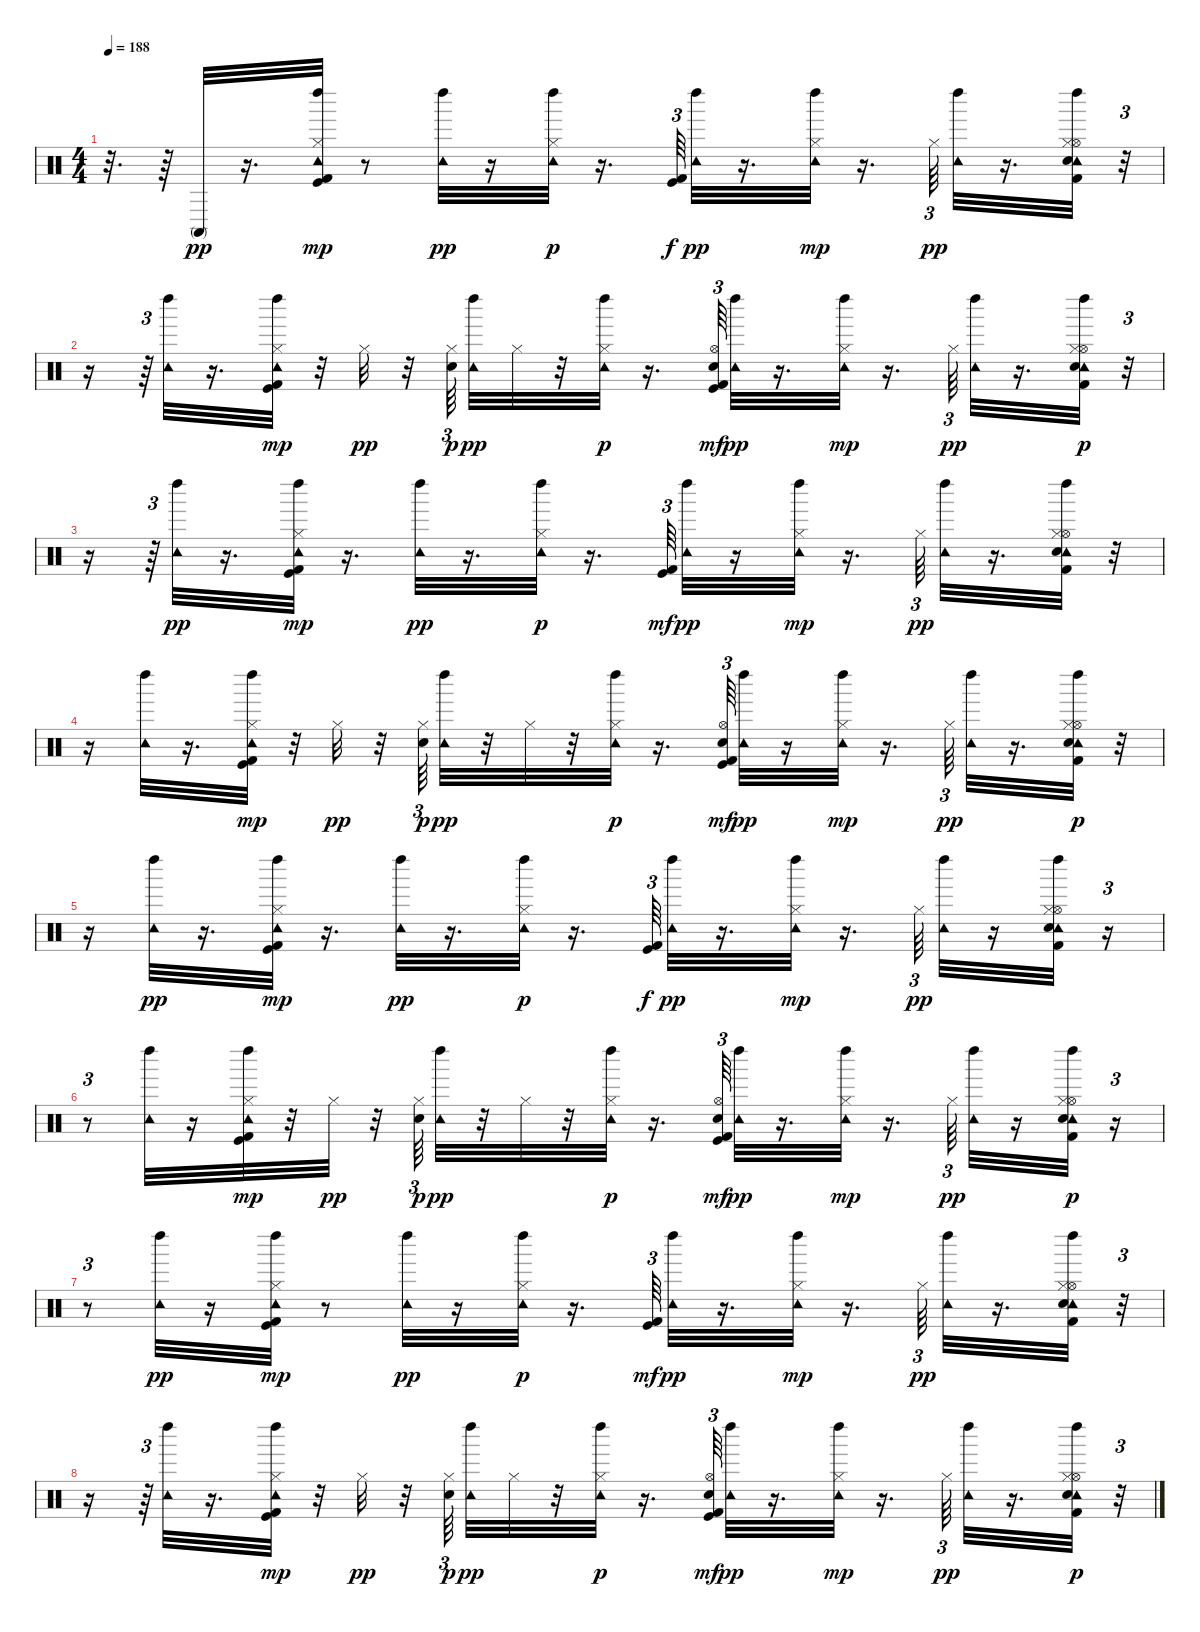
\track "" {instrument percussion}
\staff {score}
\articulation defaults
\ts (4 4)
\tempo 188
\clef neutral
\ks c
r.32{d dy mp} r.64 "Conga high (mute)".32{dy pp} r.16{d} ("Kick (hit) 2" "Hi-Hat (closed)" "Tambourine (hit)" "Left Maraca (hit)" "Kick (hit)").32{dy mp} r.8 ("Tambourine (hit)" "Left Maraca (hit)").32{dy pp} r.16 ("Hi-Hat (closed)" "Tambourine (hit)" "Left Maraca (hit)").32{dy p} r.16{d} ("Kick (hit) 2" "Kick (hit)").64{tu (3 2) dy f} ("Tambourine (hit)" "Left Maraca (hit)").32{dy pp} r.16{d} ("Hi-Hat (closed)" "Tambourine (hit)" "Left Maraca (hit)").32{dy mp} r.16{d} "Hi-Hat (closed)".64{tu (3 2) dy pp} ("Tambourine (hit)" "Left Maraca (hit)").32 r.16{d} ("Kick (hit) 2" "Hi-Hat (open)" "Tambourine (hit)" "Left Maraca (hit)" "Electric Snare (hit)" "Hi-Hat (closed)").32 r.32{tu (3 2)} |
r.16 r.64{tu (3 2)} ("Tambourine (hit)" "Left Maraca (hit)").32 r.16{d} ("Kick (hit) 2" "Hi-Hat (closed)" "Tambourine (hit)" "Left Maraca (hit)" "Kick (hit)").32{dy mp} r.32 "Hi-Hat (closed)".32{dy pp} r.32 ("Electric Snare (hit)" "Hi-Hat (closed)").64{tu (3 2) dy p beam splitsecondary} ("Tambourine (hit)" "Left Maraca (hit)").32{dy pp} "Hi-Hat (closed)".32 r.32 ("Hi-Hat (closed)" "Tambourine (hit)" "Left Maraca (hit)").32{dy p} r.16{d} ("Kick (hit) 2" "Hi-Hat (open)" "Electric Snare (hit)" "Kick (hit)").64{tu (3 2) dy mf} ("Tambourine (hit)" "Left Maraca (hit)").32{dy pp} r.16{d} ("Hi-Hat (closed)" "Tambourine (hit)" "Left Maraca (hit)").32{dy mp} r.16{d} "Hi-Hat (closed)".64{tu (3 2) dy pp} ("Tambourine (hit)" "Left Maraca (hit)").32 r.16{d} ("Kick (hit) 2" "Hi-Hat (open)" "Tambourine (hit)" "Left Maraca (hit)" "Electric Snare (hit)" "Hi-Hat (closed)").32{dy p} r.32{tu (3 2)} |
r.16 r.64{tu (3 2)} ("Tambourine (hit)" "Left Maraca (hit)").32{dy pp} r.16{d} ("Kick (hit) 2" "Hi-Hat (closed)" "Tambourine (hit)" "Left Maraca (hit)" "Kick (hit)").32{dy mp} r.16{d} ("Tambourine (hit)" "Left Maraca (hit)").32{dy pp} r.16{d} ("Hi-Hat (closed)" "Tambourine (hit)" "Left Maraca (hit)").32{dy p} r.16{d} ("Kick (hit) 2" "Kick (hit)").64{tu (3 2) dy mf} ("Tambourine (hit)" "Left Maraca (hit)").32{dy pp} r.16 ("Hi-Hat (closed)" "Tambourine (hit)" "Left Maraca (hit)").32{dy mp} r.16{d} "Hi-Hat (closed)".64{tu (3 2) dy pp} ("Tambourine (hit)" "Left Maraca (hit)").32 r.16{d} ("Kick (hit) 2" "Hi-Hat (open)" "Tambourine (hit)" "Left Maraca (hit)" "Electric Snare (hit)" "Hi-Hat (closed)").32 r.32 |
r.16 ("Tambourine (hit)" "Left Maraca (hit)").32 r.16{d} ("Kick (hit) 2" "Hi-Hat (closed)" "Tambourine (hit)" "Left Maraca (hit)" "Kick (hit)").32{dy mp} r.32 "Hi-Hat (closed)".32{dy pp} r.32 ("Electric Snare (hit)" "Hi-Hat (closed)").64{tu (3 2) dy p} ("Tambourine (hit)" "Left Maraca (hit)").32{dy pp} r.32 "Hi-Hat (closed)".32 r.32 ("Hi-Hat (closed)" "Tambourine (hit)" "Left Maraca (hit)").32{dy p} r.16{d} ("Kick (hit) 2" "Hi-Hat (open)" "Electric Snare (hit)" "Kick (hit)").64{tu (3 2) dy mf} ("Tambourine (hit)" "Left Maraca (hit)").32{dy pp} r.16 ("Hi-Hat (closed)" "Tambourine (hit)" "Left Maraca (hit)").32{dy mp} r.16{d} "Hi-Hat (closed)".64{tu (3 2) dy pp} ("Tambourine (hit)" "Left Maraca (hit)").32 r.16{d} ("Kick (hit) 2" "Hi-Hat (open)" "Tambourine (hit)" "Left Maraca (hit)" "Electric Snare (hit)" "Hi-Hat (closed)").32{dy p} r.32 |
r.16 ("Tambourine (hit)" "Left Maraca (hit)").32{dy pp} r.16{d} ("Kick (hit) 2" "Hi-Hat (closed)" "Tambourine (hit)" "Left Maraca (hit)" "Kick (hit)").32{dy mp} r.16{d} ("Tambourine (hit)" "Left Maraca (hit)").32{dy pp} r.16{d} ("Hi-Hat (closed)" "Tambourine (hit)" "Left Maraca (hit)").32{dy p} r.16{d} ("Kick (hit) 2" "Kick (hit)").64{tu (3 2) dy f} ("Tambourine (hit)" "Left Maraca (hit)").32{dy pp} r.16{d} ("Hi-Hat (closed)" "Tambourine (hit)" "Left Maraca (hit)").32{dy mp} r.16{d} "Hi-Hat (closed)".64{tu (3 2) dy pp} ("Tambourine (hit)" "Left Maraca (hit)").32 r.16 ("Kick (hit) 2" "Hi-Hat (open)" "Tambourine (hit)" "Left Maraca (hit)" "Electric Snare (hit)" "Hi-Hat (closed)").32 r.16{tu (3 2)} |
r.8{tu (3 2)} ("Tambourine (hit)" "Left Maraca (hit)").32 r.16 ("Kick (hit) 2" "Hi-Hat (closed)" "Tambourine (hit)" "Left Maraca (hit)" "Kick (hit)").32{dy mp} r.32 "Hi-Hat (closed)".32{dy pp} r.32 ("Electric Snare (hit)" "Hi-Hat (closed)").64{tu (3 2) dy p} ("Tambourine (hit)" "Left Maraca (hit)").32{dy pp} r.32 "Hi-Hat (closed)".32 r.32 ("Hi-Hat (closed)" "Tambourine (hit)" "Left Maraca (hit)").32{dy p} r.16{d} ("Kick (hit) 2" "Hi-Hat (open)" "Electric Snare (hit)" "Kick (hit)").64{tu (3 2) dy mf} ("Tambourine (hit)" "Left Maraca (hit)").32{dy pp} r.16{d} ("Hi-Hat (closed)" "Tambourine (hit)" "Left Maraca (hit)").32{dy mp} r.16{d} "Hi-Hat (closed)".64{tu (3 2) dy pp} ("Tambourine (hit)" "Left Maraca (hit)").32 r.16 ("Kick (hit) 2" "Hi-Hat (open)" "Tambourine (hit)" "Left Maraca (hit)" "Electric Snare (hit)" "Hi-Hat (closed)").32{dy p} r.16{tu (3 2)} |
r.8{tu (3 2)} ("Tambourine (hit)" "Left Maraca (hit)").32{dy pp} r.16 ("Kick (hit) 2" "Hi-Hat (closed)" "Tambourine (hit)" "Left Maraca (hit)" "Kick (hit)").32{dy mp} r.8 ("Tambourine (hit)" "Left Maraca (hit)").32{dy pp} r.16 ("Hi-Hat (closed)" "Tambourine (hit)" "Left Maraca (hit)").32{dy p} r.16{d} ("Kick (hit) 2" "Kick (hit)").64{tu (3 2) dy mf} ("Tambourine (hit)" "Left Maraca (hit)").32{dy pp} r.16{d} ("Hi-Hat (closed)" "Tambourine (hit)" "Left Maraca (hit)").32{dy mp} r.16{d} "Hi-Hat (closed)".64{tu (3 2) dy pp} ("Tambourine (hit)" "Left Maraca (hit)").32 r.16{d} ("Kick (hit) 2" "Hi-Hat (open)" "Tambourine (hit)" "Left Maraca (hit)" "Electric Snare (hit)" "Hi-Hat (closed)").32 r.32{tu (3 2)} |
r.16 r.64{tu (3 2)} ("Tambourine (hit)" "Left Maraca (hit)").32 r.16{d} ("Kick (hit) 2" "Hi-Hat (closed)" "Tambourine (hit)" "Left Maraca (hit)" "Kick (hit)").32{dy mp} r.32 "Hi-Hat (closed)".32{dy pp} r.32 ("Electric Snare (hit)" "Hi-Hat (closed)").64{tu (3 2) dy p beam splitsecondary} ("Tambourine (hit)" "Left Maraca (hit)").32{dy pp} "Hi-Hat (closed)".32 r.32 ("Hi-Hat (closed)" "Tambourine (hit)" "Left Maraca (hit)").32{dy p} r.16{d} ("Kick (hit) 2" "Hi-Hat (open)" "Electric Snare (hit)" "Kick (hit)").64{tu (3 2) dy mf} ("Tambourine (hit)" "Left Maraca (hit)").32{dy pp} r.16{d} ("Hi-Hat (closed)" "Tambourine (hit)" "Left Maraca (hit)").32{dy mp} r.16{d} "Hi-Hat (closed)".64{tu (3 2) dy pp} ("Tambourine (hit)" "Left Maraca (hit)").32 r.16{d} ("Kick (hit) 2" "Hi-Hat (open)" "Tambourine (hit)" "Left Maraca (hit)" "Electric Snare (hit)" "Hi-Hat (closed)").32{dy p} r.32{tu (3 2)}
